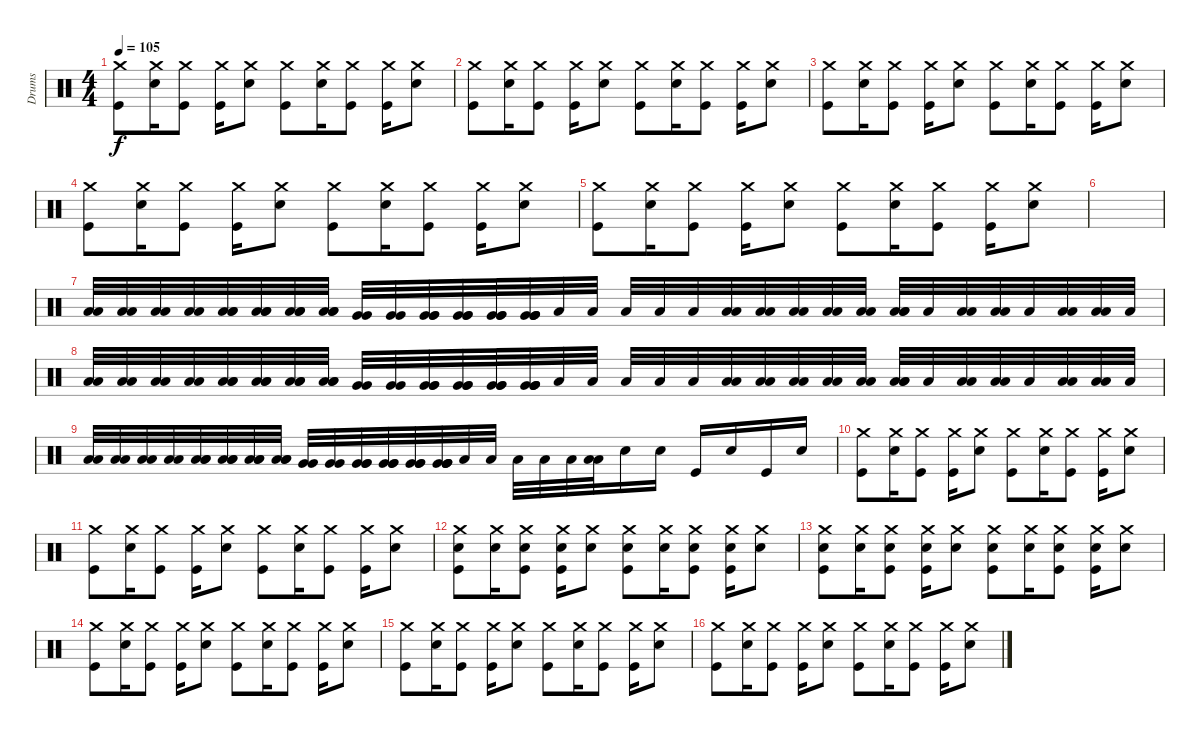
\track ("Drums" "Drums") {instrument percussion}
\staff {score}
\articulation defaults
\ts (4 4)
\tempo 105
\clef neutral
\ks c
("Crash medium (hit)" "Kick (hit)").8{dy f} ("Crash medium (hit)" "Electric Snare (hit)").16 ("Crash medium (hit)" "Kick (hit)").8 ("Crash medium (hit)" "Kick (hit)").16 ("Crash medium (hit)" "Electric Snare (hit)").8 ("Crash medium (hit)" "Kick (hit)").8 ("Crash medium (hit)" "Electric Snare (hit)").16 ("Crash medium (hit)" "Kick (hit)").8 ("Crash medium (hit)" "Kick (hit)").16 ("Crash medium (hit)" "Electric Snare (hit)").8 |
("Crash medium (hit)" "Kick (hit)").8 ("Crash medium (hit)" "Electric Snare (hit)").16 ("Crash medium (hit)" "Kick (hit)").8 ("Crash medium (hit)" "Kick (hit)").16 ("Crash medium (hit)" "Electric Snare (hit)").8 ("Crash medium (hit)" "Kick (hit)").8 ("Crash medium (hit)" "Electric Snare (hit)").16 ("Crash medium (hit)" "Kick (hit)").8 ("Crash medium (hit)" "Kick (hit)").16 ("Crash medium (hit)" "Electric Snare (hit)").8 |
("Crash medium (hit)" "Kick (hit)").8 ("Crash medium (hit)" "Electric Snare (hit)").16 ("Crash medium (hit)" "Kick (hit)").8 ("Crash medium (hit)" "Kick (hit)").16 ("Crash medium (hit)" "Electric Snare (hit)").8 ("Crash medium (hit)" "Kick (hit)").8 ("Crash medium (hit)" "Electric Snare (hit)").16 ("Crash medium (hit)" "Kick (hit)").8 ("Crash medium (hit)" "Kick (hit)").16 ("Crash medium (hit)" "Electric Snare (hit)").8 |
("Crash medium (hit)" "Kick (hit)").8 ("Crash medium (hit)" "Electric Snare (hit)").16 ("Crash medium (hit)" "Kick (hit)").8 ("Crash medium (hit)" "Kick (hit)").16 ("Crash medium (hit)" "Electric Snare (hit)").8 ("Crash medium (hit)" "Kick (hit)").8 ("Crash medium (hit)" "Electric Snare (hit)").16 ("Crash medium (hit)" "Kick (hit)").8 ("Crash medium (hit)" "Kick (hit)").16 ("Crash medium (hit)" "Electric Snare (hit)").8 |
("Crash medium (hit)" "Kick (hit)").8 ("Crash medium (hit)" "Electric Snare (hit)").16 ("Crash medium (hit)" "Kick (hit)").8 ("Crash medium (hit)" "Kick (hit)").16 ("Crash medium (hit)" "Electric Snare (hit)").8 ("Crash medium (hit)" "Kick (hit)").8 ("Crash medium (hit)" "Electric Snare (hit)").16 ("Crash medium (hit)" "Kick (hit)").8 ("Crash medium (hit)" "Kick (hit)").16 ("Crash medium (hit)" "Electric Snare (hit)").8 |
|
("Low Floor Tom (hit)" "Low Floor Tom (hit)").32 ("Low Floor Tom (hit)" "Low Floor Tom (hit)").32 ("Low Floor Tom (hit)" "Low Floor Tom (hit)").32 ("Low Floor Tom (hit)" "Low Floor Tom (hit)").32 ("Low Floor Tom (hit)" "Low Floor Tom (hit)" "Low Floor Tom (hit)").32 ("Low Floor Tom (hit)" "Low Floor Tom (hit)" "Low Floor Tom (hit)").32 ("Low Floor Tom (hit)" "Low Floor Tom (hit)" "Low Floor Tom (hit)").32 ("Low Floor Tom (hit)" "Low Floor Tom (hit)" "Low Floor Tom (hit)").32 ("Very Low Tom (hit)" "Very Low Tom (hit)").32 ("Very Low Tom (hit)" "Very Low Tom (hit)").32 ("Very Low Tom (hit)" "Very Low Tom (hit)" "Very Low Tom (hit)").32 ("Very Low Tom (hit)" "Very Low Tom (hit)" "Very Low Tom (hit)").32 ("Very Low Tom (hit)" "Very Low Tom (hit)" "Very Low Tom (hit)").32 ("Very Low Tom (hit)" "Very Low Tom (hit)" "Very Low Tom (hit)" "Very Low Tom (hit)").32 "Low Tom (hit)".32 "Low Tom (hit)".32 "Low Tom (hit)".32 "Low Tom (hit)".32 "Low Tom (hit)".32 ("Low Tom (hit)" "Low Tom (hit)").32 ("Low Tom (hit)" "Low Tom (hit)").32 ("Low Tom (hit)" "Low Tom (hit)").32 ("Low Tom (hit)" "Low Tom (hit)").32 ("Low Tom (hit)" "Low Tom (hit)").32 ("Low Tom (hit)" "Low Tom (hit)" "Low Tom (hit)").32 "Low Floor Tom (hit)".32 ("Low Floor Tom (hit)" "Low Floor Tom (hit)").32 ("Low Floor Tom (hit)" "Low Floor Tom (hit)").32 "Low Floor Tom (hit)".32 ("Low Floor Tom (hit)" "Low Floor Tom (hit)").32 ("Low Floor Tom (hit)" "Low Floor Tom (hit)").32 "Low Floor Tom (hit)".32 |
("Low Floor Tom (hit)" "Low Floor Tom (hit)").32 ("Low Floor Tom (hit)" "Low Floor Tom (hit)").32 ("Low Floor Tom (hit)" "Low Floor Tom (hit)").32 ("Low Floor Tom (hit)" "Low Floor Tom (hit)").32 ("Low Floor Tom (hit)" "Low Floor Tom (hit)" "Low Floor Tom (hit)").32 ("Low Floor Tom (hit)" "Low Floor Tom (hit)" "Low Floor Tom (hit)").32 ("Low Floor Tom (hit)" "Low Floor Tom (hit)" "Low Floor Tom (hit)").32 ("Low Floor Tom (hit)" "Low Floor Tom (hit)" "Low Floor Tom (hit)").32 ("Very Low Tom (hit)" "Very Low Tom (hit)").32 ("Very Low Tom (hit)" "Very Low Tom (hit)").32 ("Very Low Tom (hit)" "Very Low Tom (hit)" "Very Low Tom (hit)").32 ("Very Low Tom (hit)" "Very Low Tom (hit)" "Very Low Tom (hit)").32 ("Very Low Tom (hit)" "Very Low Tom (hit)" "Very Low Tom (hit)").32 ("Very Low Tom (hit)" "Very Low Tom (hit)" "Very Low Tom (hit)" "Very Low Tom (hit)").32 "Low Tom (hit)".32 "Low Tom (hit)".32 "Low Tom (hit)".32 "Low Tom (hit)".32 "Low Tom (hit)".32 ("Low Tom (hit)" "Low Tom (hit)").32 ("Low Tom (hit)" "Low Tom (hit)").32 ("Low Tom (hit)" "Low Tom (hit)").32 ("Low Tom (hit)" "Low Tom (hit)").32 ("Low Tom (hit)" "Low Tom (hit)").32 ("Low Tom (hit)" "Low Tom (hit)" "Low Tom (hit)").32 "Low Floor Tom (hit)".32 ("Low Floor Tom (hit)" "Low Floor Tom (hit)").32 ("Low Floor Tom (hit)" "Low Floor Tom (hit)").32 "Low Floor Tom (hit)".32 ("Low Floor Tom (hit)" "Low Floor Tom (hit)").32 ("Low Floor Tom (hit)" "Low Floor Tom (hit)").32 "Low Floor Tom (hit)".32 |
("Low Floor Tom (hit)" "Low Floor Tom (hit)").32 ("Low Floor Tom (hit)" "Low Floor Tom (hit)").32 ("Low Floor Tom (hit)" "Low Floor Tom (hit)").32 ("Low Floor Tom (hit)" "Low Floor Tom (hit)").32 ("Low Floor Tom (hit)" "Low Floor Tom (hit)" "Low Floor Tom (hit)").32 ("Low Floor Tom (hit)" "Low Floor Tom (hit)" "Low Floor Tom (hit)").32 ("Low Floor Tom (hit)" "Low Floor Tom (hit)" "Low Floor Tom (hit)").32 ("Low Floor Tom (hit)" "Low Floor Tom (hit)" "Low Floor Tom (hit)").32 ("Very Low Tom (hit)" "Very Low Tom (hit)").32 ("Very Low Tom (hit)" "Very Low Tom (hit)").32 ("Very Low Tom (hit)" "Very Low Tom (hit)" "Very Low Tom (hit)").32 ("Very Low Tom (hit)" "Very Low Tom (hit)" "Very Low Tom (hit)").32 ("Very Low Tom (hit)" "Very Low Tom (hit)" "Very Low Tom (hit)").32 ("Very Low Tom (hit)" "Very Low Tom (hit)" "Very Low Tom (hit)" "Very Low Tom (hit)").32 "Low Tom (hit)".32 "Low Tom (hit)".32 "Low Tom (hit)".32 "Low Tom (hit)".32 "Low Tom (hit)".32 ("Low Tom (hit)" "Low Tom (hit)").32 "Electric Snare (hit)".16 "Electric Snare (hit)".16 "Kick (hit)".16 "Electric Snare (hit)".16 "Kick (hit)".16 "Electric Snare (hit)".16 |
("Crash medium (hit)" "Kick (hit)").8 ("Crash medium (hit)" "Electric Snare (hit)").16 ("Crash medium (hit)" "Kick (hit)").8 ("Crash medium (hit)" "Kick (hit)").16 ("Crash medium (hit)" "Electric Snare (hit)").8 ("Crash medium (hit)" "Kick (hit)").8 ("Crash medium (hit)" "Electric Snare (hit)").16 ("Crash medium (hit)" "Kick (hit)").8 ("Crash medium (hit)" "Kick (hit)").16 ("Crash medium (hit)" "Electric Snare (hit)").8 |
("Crash medium (hit)" "Kick (hit)").8 ("Crash medium (hit)" "Electric Snare (hit)").16 ("Crash medium (hit)" "Kick (hit)").8 ("Crash medium (hit)" "Kick (hit)").16 ("Crash medium (hit)" "Electric Snare (hit)").8 ("Crash medium (hit)" "Kick (hit)").8 ("Crash medium (hit)" "Electric Snare (hit)").16 ("Crash medium (hit)" "Kick (hit)").8 ("Crash medium (hit)" "Kick (hit)").16 ("Crash medium (hit)" "Electric Snare (hit)").8 |
("Crash medium (hit)" "Electric Snare (hit)" "Kick (hit)").8 ("Crash medium (hit)" "Electric Snare (hit)").16 ("Crash medium (hit)" "Electric Snare (hit)" "Kick (hit)").8 ("Crash medium (hit)" "Electric Snare (hit)" "Kick (hit)").16 ("Crash medium (hit)" "Electric Snare (hit)").8 ("Crash medium (hit)" "Electric Snare (hit)" "Kick (hit)").8 ("Crash medium (hit)" "Electric Snare (hit)").16 ("Crash medium (hit)" "Electric Snare (hit)" "Kick (hit)").8 ("Crash medium (hit)" "Electric Snare (hit)" "Kick (hit)").16 ("Crash medium (hit)" "Electric Snare (hit)").8 |
("Crash medium (hit)" "Electric Snare (hit)" "Kick (hit)").8 ("Crash medium (hit)" "Electric Snare (hit)").16 ("Crash medium (hit)" "Electric Snare (hit)" "Kick (hit)").8 ("Crash medium (hit)" "Electric Snare (hit)" "Kick (hit)").16 ("Crash medium (hit)" "Electric Snare (hit)").8 ("Crash medium (hit)" "Electric Snare (hit)" "Kick (hit)").8 ("Crash medium (hit)" "Electric Snare (hit)").16 ("Crash medium (hit)" "Electric Snare (hit)" "Kick (hit)").8 ("Crash medium (hit)" "Electric Snare (hit)" "Kick (hit)").16 ("Crash medium (hit)" "Electric Snare (hit)").8 |
("Crash medium (hit)" "Kick (hit)").8 ("Crash medium (hit)" "Electric Snare (hit)").16 ("Crash medium (hit)" "Kick (hit)").8 ("Crash medium (hit)" "Kick (hit)").16 ("Crash medium (hit)" "Electric Snare (hit)").8 ("Crash medium (hit)" "Kick (hit)").8 ("Crash medium (hit)" "Electric Snare (hit)").16 ("Crash medium (hit)" "Kick (hit)").8 ("Crash medium (hit)" "Kick (hit)").16 ("Crash medium (hit)" "Electric Snare (hit)").8 |
("Crash medium (hit)" "Kick (hit)").8 ("Crash medium (hit)" "Electric Snare (hit)").16 ("Crash medium (hit)" "Kick (hit)").8 ("Crash medium (hit)" "Kick (hit)").16 ("Crash medium (hit)" "Electric Snare (hit)").8 ("Crash medium (hit)" "Kick (hit)").8 ("Crash medium (hit)" "Electric Snare (hit)").16 ("Crash medium (hit)" "Kick (hit)").8 ("Crash medium (hit)" "Kick (hit)").16 ("Crash medium (hit)" "Electric Snare (hit)").8 |
("Crash medium (hit)" "Kick (hit)").8 ("Crash medium (hit)" "Electric Snare (hit)").16 ("Crash medium (hit)" "Kick (hit)").8 ("Crash medium (hit)" "Kick (hit)").16 ("Crash medium (hit)" "Electric Snare (hit)").8 ("Crash medium (hit)" "Kick (hit)").8 ("Crash medium (hit)" "Electric Snare (hit)").16 ("Crash medium (hit)" "Kick (hit)").8 ("Crash medium (hit)" "Kick (hit)").16 ("Crash medium (hit)" "Electric Snare (hit)").8
